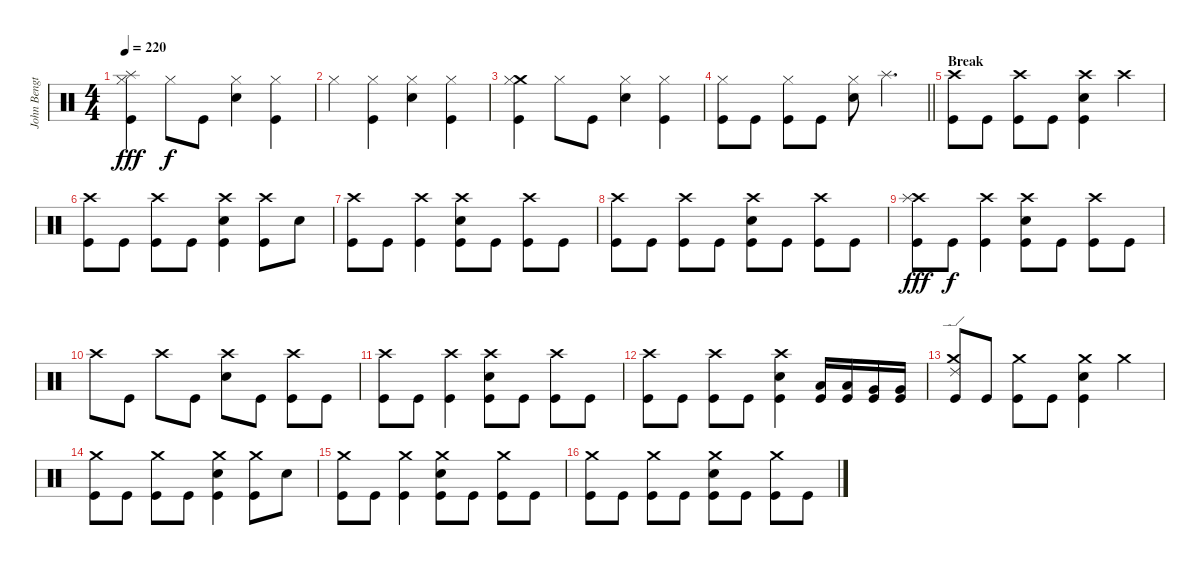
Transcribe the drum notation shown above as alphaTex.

\track ("John Bengtsson" "John Bengt") {instrument percussion}
\staff {score}
\articulation defaults
\ts (4 4)
\tempo 220
\clef neutral
\ks c
("Splash (hit)" "Hi-Hat (closed)" "Kick (hit)").4{dy fff} "Hi-Hat (closed)".8{dy f} "Kick (hit)".8 ("Hi-Hat (closed)" "Snare (hit) 2").4 ("Hi-Hat (closed)" "Kick (hit)").4 |
"Hi-Hat (closed)".4 ("Hi-Hat (closed)" "Kick (hit)").4 ("Hi-Hat (closed)" "Snare (hit) 2").4 ("Hi-Hat (closed)" "Kick (hit)").4 |
("Crash medium (hit)" "Hi-Hat (closed)" "Kick (hit)").4 "Hi-Hat (closed)".8 "Kick (hit)".8 ("Hi-Hat (closed)" "Snare (hit) 2").4 ("Hi-Hat (closed)" "Kick (hit)").4 |
\barLineRight lightlight
("Hi-Hat (closed)" "Kick (hit)").8 "Kick (hit)".8 ("Hi-Hat (closed)" "Kick (hit)").8 "Kick (hit)".8 ("Hi-Hat (closed)" "Snare (hit) 2").8 "Splash (hit)".4{d} |
\section ("" "Break")
("Crash high (hit)" "Kick (hit)").8 "Kick (hit)".8 ("Crash high (hit)" "Kick (hit)").8 "Kick (hit)".8 ("Crash high (hit)" "Snare (hit) 2" "Kick (hit)").4 "Crash high (hit)".4 |
("Crash high (hit)" "Kick (hit)").8 "Kick (hit)".8 ("Crash high (hit)" "Kick (hit)").8 "Kick (hit)".8 ("Crash high (hit)" "Snare (hit) 2" "Kick (hit)").4 ("Crash high (hit)" "Kick (hit)").8 "Snare (hit) 2".8 |
("Crash high (hit)" "Kick (hit)").8 "Kick (hit)".8 ("Crash high (hit)" "Kick (hit)").4 ("Crash high (hit)" "Snare (hit) 2" "Kick (hit)").8 "Kick (hit)".8 ("Crash high (hit)" "Kick (hit)").8 "Kick (hit)".8 |
("Crash high (hit)" "Kick (hit)").8 "Kick (hit)".8 ("Crash high (hit)" "Kick (hit)").8 "Kick (hit)".8 ("Crash high (hit)" "Snare (hit) 2" "Kick (hit)").8 "Kick (hit)".8 ("Crash high (hit)" "Kick (hit)").8 "Kick (hit)".8 |
("Crash high (hit)" "Splash (hit)" "Kick (hit)").8{dy fff} "Kick (hit)".8{dy f} ("Crash high (hit)" "Kick (hit)").4 ("Crash high (hit)" "Snare (hit) 2" "Kick (hit)").8 "Kick (hit)".8 ("Crash high (hit)" "Kick (hit)").8 "Kick (hit)".8 |
"Crash high (hit)".8 "Kick (hit)".8 "Crash high (hit)".8 "Kick (hit)".8 ("Crash high (hit)" "Snare (hit) 2").8 "Kick (hit)".8 ("Crash high (hit)" "Kick (hit)").8 "Kick (hit)".8 |
("Crash high (hit)" "Kick (hit)").8 "Kick (hit)".8 ("Crash high (hit)" "Kick (hit)").4 ("Crash high (hit)" "Snare (hit) 2" "Kick (hit)").8 "Kick (hit)".8 ("Crash high (hit)" "Kick (hit)").8 "Kick (hit)".8 |
("Crash high (hit)" "Kick (hit)").8 "Kick (hit)".8 ("Crash high (hit)" "Kick (hit)").8 "Kick (hit)".8 ("Crash high (hit)" "Snare (hit) 2" "Kick (hit)").4 ("Low Tom (hit)" "Kick (hit)").16 ("Low Tom (hit)" "Kick (hit)").16 ("Very Low Tom (hit)" "Kick (hit)").16 ("Very Low Tom (hit)" "Kick (hit)").16 |
("Crash medium (hit)" "Ride (edge) 2" "Kick (hit)").8 "Kick (hit)".8 ("Crash medium (hit)" "Kick (hit)").8 "Kick (hit)".8 ("Crash medium (hit)" "Snare (hit) 2" "Kick (hit)").4 "Crash medium (hit)".4 |
("Crash medium (hit)" "Kick (hit)").8 "Kick (hit)".8 ("Crash medium (hit)" "Kick (hit)").8 "Kick (hit)".8 ("Crash medium (hit)" "Snare (hit) 2" "Kick (hit)").4 ("Crash medium (hit)" "Kick (hit)").8 "Snare (hit) 2".8 |
("Crash medium (hit)" "Kick (hit)").8 "Kick (hit)".8 ("Crash medium (hit)" "Kick (hit)").4 ("Crash medium (hit)" "Snare (hit) 2" "Kick (hit)").8 "Kick (hit)".8 ("Crash medium (hit)" "Kick (hit)").8 "Kick (hit)".8 |
("Crash medium (hit)" "Kick (hit)").8 "Kick (hit)".8 ("Crash medium (hit)" "Kick (hit)").8 "Kick (hit)".8 ("Crash medium (hit)" "Snare (hit) 2" "Kick (hit)").8 "Kick (hit)".8 ("Crash medium (hit)" "Kick (hit)").8 "Kick (hit)".8
